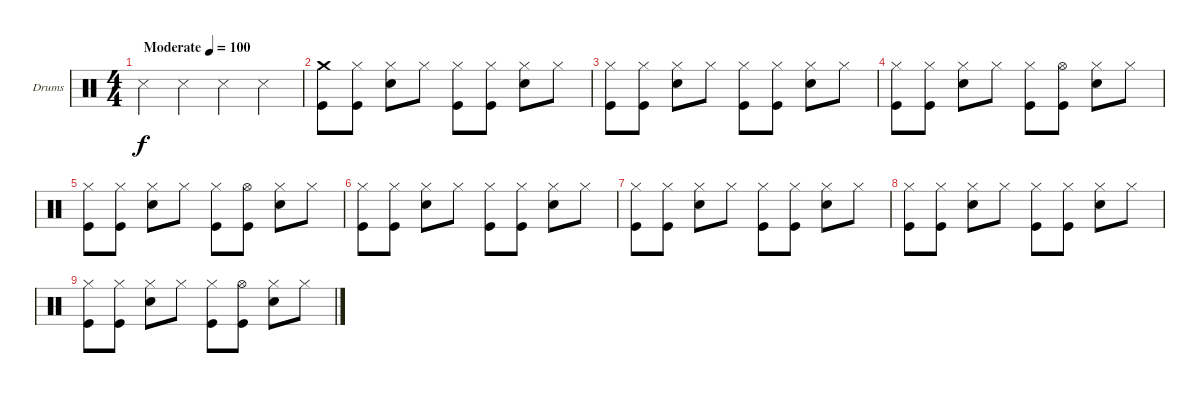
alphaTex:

\bracketExtendMode groupsimilarinstruments
\firstSystemTrackNameOrientation horizontal
\otherSystemsTrackNameOrientation horizontal
\track ("Drums" "Drums") {instrument percussion}
\staff {score}
\articulation defaults
\ts (4 4)
\beaming (8 2 2 2 2)
\tempo (100 "Moderate")
\clef neutral
\ks c "Snare (side stick) 3".4{dy f} "Snare (side stick) 3".4 "Snare (side stick) 3".4 "Snare (side stick) 3".4
|
("Kick (hit)" "Crash medium (hit)").8 ("Kick (hit)" "Hi-Hat (closed)").8 ("Snare (hit) 2" "Hi-Hat (closed)").8 "Hi-Hat (closed)".8 ("Kick (hit)" "Hi-Hat (closed)").8 ("Kick (hit)" "Hi-Hat (closed)").8 ("Snare (hit) 2" "Hi-Hat (closed)").8 "Hi-Hat (closed)".8 |
("Kick (hit)" "Hi-Hat (closed)").8 ("Kick (hit)" "Hi-Hat (closed)").8 ("Snare (hit) 2" "Hi-Hat (closed)").8 "Hi-Hat (closed)".8 ("Kick (hit)" "Hi-Hat (closed)").8 ("Kick (hit)" "Hi-Hat (closed)").8 ("Snare (hit) 2" "Hi-Hat (closed)").8 "Hi-Hat (closed)".8 |
("Kick (hit)" "Hi-Hat (closed)").8 ("Kick (hit)" "Hi-Hat (closed)").8 ("Snare (hit) 2" "Hi-Hat (closed)").8 "Hi-Hat (closed)".8 ("Kick (hit)" "Hi-Hat (closed)").8 ("Kick (hit)" "Hi-Hat (open)").8 ("Snare (hit) 2" "Hi-Hat (closed)").8 "Hi-Hat (closed)".8 |
("Kick (hit)" "Hi-Hat (closed)").8 ("Kick (hit)" "Hi-Hat (closed)").8 ("Snare (hit) 2" "Hi-Hat (closed)").8 "Hi-Hat (closed)".8 ("Kick (hit)" "Hi-Hat (closed)").8 ("Kick (hit)" "Hi-Hat (open)").8 ("Snare (hit) 2" "Hi-Hat (closed)").8 "Hi-Hat (closed)".8 |
("Kick (hit)" "Hi-Hat (closed)").8 ("Kick (hit)" "Hi-Hat (closed)").8 ("Snare (hit) 2" "Hi-Hat (closed)").8 "Hi-Hat (closed)".8 ("Kick (hit)" "Hi-Hat (closed)").8 ("Kick (hit)" "Hi-Hat (closed)").8 ("Snare (hit) 2" "Hi-Hat (closed)").8 "Hi-Hat (closed)".8 |
("Kick (hit)" "Hi-Hat (closed)").8 ("Kick (hit)" "Hi-Hat (closed)").8 ("Snare (hit) 2" "Hi-Hat (closed)").8 "Hi-Hat (closed)".8 ("Kick (hit)" "Hi-Hat (closed)").8 ("Kick (hit)" "Hi-Hat (closed)").8 ("Snare (hit) 2" "Hi-Hat (closed)").8 "Hi-Hat (closed)".8 |
("Kick (hit)" "Hi-Hat (closed)").8 ("Kick (hit)" "Hi-Hat (closed)").8 ("Snare (hit) 2" "Hi-Hat (closed)").8 "Hi-Hat (closed)".8 ("Kick (hit)" "Hi-Hat (closed)").8 ("Kick (hit)" "Hi-Hat (closed)").8 ("Snare (hit) 2" "Hi-Hat (closed)").8 "Hi-Hat (closed)".8 |
("Kick (hit)" "Hi-Hat (closed)").8 ("Kick (hit)" "Hi-Hat (closed)").8 ("Snare (hit) 2" "Hi-Hat (closed)").8 "Hi-Hat (closed)".8 ("Kick (hit)" "Hi-Hat (closed)").8 ("Kick (hit)" "Hi-Hat (open)").8 ("Snare (hit) 2" "Hi-Hat (closed)").8 "Hi-Hat (closed)".8
